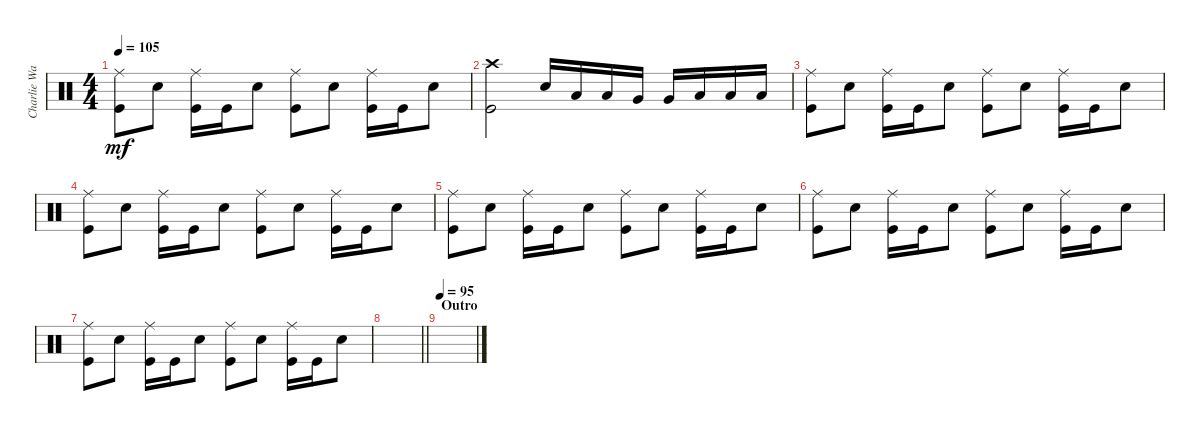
\track ("Charlie Watts" "Charlie Wa") {instrument percussion}
\staff {score}
\articulation defaults
\ts (4 4)
\tempo 105
\clef neutral
\ks c
("Ride (middle)" "Kick (hit)").8{dy mf} "Snare (hit) 2".8 ("Ride (middle)" "Kick (hit)").16 "Kick (hit)".16 "Snare (hit) 2".8 ("Ride (middle)" "Kick (hit)").8 "Snare (hit) 2".8 ("Ride (middle)" "Kick (hit)").16 "Kick (hit)".16 "Snare (hit) 2".8 |
("Crash high (hit)" "Kick (hit)").2 "Snare (hit) 2".16 "Low Tom (hit)".16 "Low Tom (hit)".16 "Very Low Tom (hit)".16 "Very Low Tom (hit)".16 "Low Floor Tom (hit)".16 "Low Floor Tom (hit)".16 "Low Floor Tom (hit)".16 |
("Ride (middle)" "Kick (hit)").8 "Snare (hit) 2".8 ("Ride (middle)" "Kick (hit)").16 "Kick (hit)".16 "Snare (hit) 2".8 ("Ride (middle)" "Kick (hit)").8 "Snare (hit) 2".8 ("Ride (middle)" "Kick (hit)").16 "Kick (hit)".16 "Snare (hit) 2".8 |
("Ride (middle)" "Kick (hit)").8 "Snare (hit) 2".8 ("Ride (middle)" "Kick (hit)").16 "Kick (hit)".16 "Snare (hit) 2".8 ("Ride (middle)" "Kick (hit)").8 "Snare (hit) 2".8 ("Ride (middle)" "Kick (hit)").16 "Kick (hit)".16 "Snare (hit) 2".8 |
("Ride (middle)" "Kick (hit)").8 "Snare (hit) 2".8 ("Ride (middle)" "Kick (hit)").16 "Kick (hit)".16 "Snare (hit) 2".8 ("Ride (middle)" "Kick (hit)").8 "Snare (hit) 2".8 ("Ride (middle)" "Kick (hit)").16 "Kick (hit)".16 "Snare (hit) 2".8 |
("Ride (middle)" "Kick (hit)").8 "Snare (hit) 2".8 ("Ride (middle)" "Kick (hit)").16 "Kick (hit)".16 "Snare (hit) 2".8 ("Ride (middle)" "Kick (hit)").8 "Snare (hit) 2".8 ("Ride (middle)" "Kick (hit)").16 "Kick (hit)".16 "Snare (hit) 2".8 |
("Ride (middle)" "Kick (hit)").8 "Snare (hit) 2".8 ("Ride (middle)" "Kick (hit)").16 "Kick (hit)".16 "Snare (hit) 2".8 ("Ride (middle)" "Kick (hit)").8 "Snare (hit) 2".8 ("Ride (middle)" "Kick (hit)").16 "Kick (hit)".16 "Snare (hit) 2".8 |
\barLineRight lightlight
|
\section ("" "Outro")
\tempo 95
